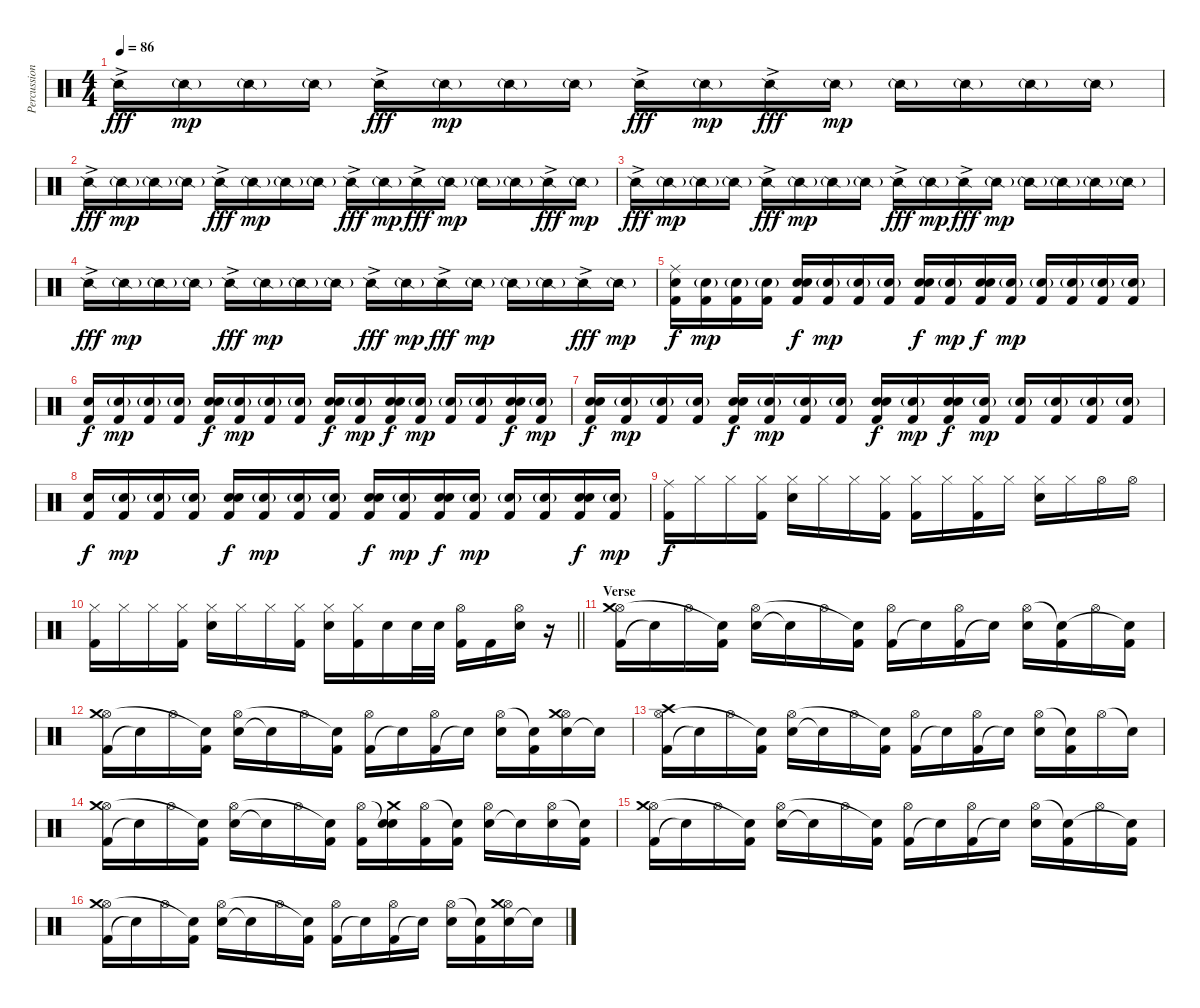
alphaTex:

\track ("Percussion" "Percussion") {instrument percussion}
\staff {score}
\articulation defaults
\ts (4 4)
\tempo 86
\clef neutral
\ks c "Snare (side stick) 2"{ac}.16{dy fff} "Snare (side stick) 2"{g}.16{dy mp} "Snare (side stick) 2"{g}.16 "Snare (side stick) 2"{g}.16 "Snare (side stick) 2"{ac}.16{dy fff} "Snare (side stick) 2"{g}.16{dy mp} "Snare (side stick) 2"{g}.16 "Snare (side stick) 2"{g}.16 "Snare (side stick) 2"{ac}.16{dy fff} "Snare (side stick) 2"{g}.16{dy mp} "Snare (side stick) 2"{ac}.16{dy fff} "Snare (side stick) 2"{g}.16{dy mp} "Snare (side stick) 2"{g}.16 "Snare (side stick) 2"{g}.16 "Snare (side stick) 2"{g}.16 "Snare (side stick) 2"{g}.16
|
"Snare (side stick) 2"{ac}.16{dy fff} "Snare (side stick) 2"{g}.16{dy mp} "Snare (side stick) 2"{g}.16 "Snare (side stick) 2"{g}.16 "Snare (side stick) 2"{ac}.16{dy fff} "Snare (side stick) 2"{g}.16{dy mp} "Snare (side stick) 2"{g}.16 "Snare (side stick) 2"{g}.16 "Snare (side stick) 2"{ac}.16{dy fff} "Snare (side stick) 2"{g}.16{dy mp} "Snare (side stick) 2"{ac}.16{dy fff} "Snare (side stick) 2"{g}.16{dy mp} "Snare (side stick) 2"{g}.16 "Snare (side stick) 2"{g}.16 "Snare (side stick) 2"{ac}.16{dy fff} "Snare (side stick) 2"{g}.16{dy mp} |
"Snare (side stick) 2"{ac}.16{dy fff} "Snare (side stick) 2"{g}.16{dy mp} "Snare (side stick) 2"{g}.16 "Snare (side stick) 2"{g}.16 "Snare (side stick) 2"{ac}.16{dy fff} "Snare (side stick) 2"{g}.16{dy mp} "Snare (side stick) 2"{g}.16 "Snare (side stick) 2"{g}.16 "Snare (side stick) 2"{ac}.16{dy fff} "Snare (side stick) 2"{g}.16{dy mp} "Snare (side stick) 2"{ac}.16{dy fff} "Snare (side stick) 2"{g}.16{dy mp} "Snare (side stick) 2"{g}.16 "Snare (side stick) 2"{g}.16 "Snare (side stick) 2"{g}.16 "Snare (side stick) 2"{g}.16 |
"Snare (side stick) 2"{ac}.16{dy fff} "Snare (side stick) 2"{g}.16{dy mp} "Snare (side stick) 2"{g}.16 "Snare (side stick) 2"{g}.16 "Snare (side stick) 2"{ac}.16{dy fff} "Snare (side stick) 2"{g}.16{dy mp} "Snare (side stick) 2"{g}.16 "Snare (side stick) 2"{g}.16 "Snare (side stick) 2"{ac}.16{dy fff} "Snare (side stick) 2"{g}.16{dy mp} "Snare (side stick) 2"{ac}.16{dy fff} "Snare (side stick) 2"{g}.16{dy mp} "Snare (side stick) 2"{g}.16 "Snare (side stick) 2"{g}.16 "Snare (side stick) 2"{ac}.16{dy fff} "Snare (side stick) 2"{g}.16{dy mp} |
("Kick (hit) 2" "Electric Snare (hit)" "Ride (middle)").16{dy f} ("Kick (hit) 2" "Electric Snare (hit)"{g}).16{dy mp} ("Kick (hit) 2" "Electric Snare (hit)"{g}).16 ("Kick (hit) 2" "Electric Snare (hit)"{g}).16 ("Kick (hit) 2" "Electric Snare (hit)" "Electric Snare (hit)").16{dy f} ("Kick (hit) 2" "Electric Snare (hit)"{g}).16{dy mp} ("Kick (hit) 2" "Electric Snare (hit)"{g}).16 ("Kick (hit) 2" "Electric Snare (hit)"{g}).16 ("Kick (hit) 2" "Electric Snare (hit)" "Electric Snare (hit)").16{dy f} ("Kick (hit) 2" "Electric Snare (hit)"{g}).16{dy mp} ("Kick (hit) 2" "Electric Snare (hit)" "Electric Snare (hit)").16{dy f} ("Kick (hit) 2" "Electric Snare (hit)"{g}).16{dy mp} ("Kick (hit) 2" "Electric Snare (hit)"{g}).16 ("Kick (hit) 2" "Electric Snare (hit)"{g}).16 ("Kick (hit) 2" "Electric Snare (hit)"{g}).16 ("Kick (hit) 2" "Electric Snare (hit)"{g}).16 |
("Kick (hit) 2" "Electric Snare (hit)").16{dy f} ("Kick (hit) 2" "Electric Snare (hit)"{g}).16{dy mp} ("Kick (hit) 2" "Electric Snare (hit)"{g}).16 ("Kick (hit) 2" "Electric Snare (hit)"{g}).16 ("Kick (hit) 2" "Electric Snare (hit)" "Electric Snare (hit)").16{dy f} ("Kick (hit) 2" "Electric Snare (hit)"{g}).16{dy mp} ("Kick (hit) 2" "Electric Snare (hit)"{g}).16 ("Kick (hit) 2" "Electric Snare (hit)"{g}).16 ("Kick (hit) 2" "Electric Snare (hit)" "Electric Snare (hit)").16{dy f} ("Kick (hit) 2" "Electric Snare (hit)"{g}).16{dy mp} ("Kick (hit) 2" "Electric Snare (hit)" "Electric Snare (hit)").16{dy f} ("Kick (hit) 2" "Electric Snare (hit)"{g}).16{dy mp} ("Kick (hit) 2" "Electric Snare (hit)"{g}).16 ("Kick (hit) 2" "Electric Snare (hit)"{g}).16 ("Kick (hit) 2" "Electric Snare (hit)" "Electric Snare (hit)").16{dy f} ("Kick (hit) 2" "Electric Snare (hit)"{g}).16{dy mp} |
("Kick (hit) 2" "Electric Snare (hit)" "Electric Snare (hit)").16{dy f} ("Kick (hit) 2" "Electric Snare (hit)"{g}).16{dy mp} ("Kick (hit) 2" "Electric Snare (hit)"{g}).16 ("Kick (hit) 2" "Electric Snare (hit)"{g}).16 ("Kick (hit) 2" "Electric Snare (hit)" "Electric Snare (hit)").16{dy f} ("Kick (hit) 2" "Electric Snare (hit)"{g}).16{dy mp} ("Kick (hit) 2" "Electric Snare (hit)"{g}).16 ("Kick (hit) 2" "Electric Snare (hit)"{g}).16 ("Kick (hit) 2" "Electric Snare (hit)" "Electric Snare (hit)").16{dy f} ("Kick (hit) 2" "Electric Snare (hit)"{g}).16{dy mp} ("Kick (hit) 2" "Electric Snare (hit)" "Electric Snare (hit)").16{dy f} ("Kick (hit) 2" "Electric Snare (hit)"{g}).16{dy mp} ("Kick (hit) 2" "Electric Snare (hit)"{g}).16 ("Kick (hit) 2" "Electric Snare (hit)"{g}).16 ("Kick (hit) 2" "Electric Snare (hit)"{g}).16 ("Kick (hit) 2" "Electric Snare (hit)"{g}).16 |
("Kick (hit) 2" "Electric Snare (hit)").16{dy f} ("Kick (hit) 2" "Electric Snare (hit)"{g}).16{dy mp} ("Kick (hit) 2" "Electric Snare (hit)"{g}).16 ("Kick (hit) 2" "Electric Snare (hit)"{g}).16 ("Kick (hit) 2" "Electric Snare (hit)" "Electric Snare (hit)").16{dy f} ("Kick (hit) 2" "Electric Snare (hit)"{g}).16{dy mp} ("Kick (hit) 2" "Electric Snare (hit)"{g}).16 ("Kick (hit) 2" "Electric Snare (hit)"{g}).16 ("Kick (hit) 2" "Electric Snare (hit)" "Electric Snare (hit)").16{dy f} ("Kick (hit) 2" "Electric Snare (hit)"{g}).16{dy mp} ("Kick (hit) 2" "Electric Snare (hit)" "Electric Snare (hit)").16{dy f} ("Kick (hit) 2" "Electric Snare (hit)"{g}).16{dy mp} ("Kick (hit) 2" "Electric Snare (hit)"{g}).16 ("Kick (hit) 2" "Electric Snare (hit)"{g}).16 ("Kick (hit) 2" "Electric Snare (hit)" "Electric Snare (hit)").16{dy f} ("Kick (hit) 2" "Electric Snare (hit)"{g}).16{dy mp} |
("Kick (hit) 2" "Ride (middle)").16{dy f} "Hi-Hat (closed)".16 "Hi-Hat (closed)".16 ("Kick (hit) 2" "Hi-Hat (closed)").16 ("Electric Snare (hit)" "Hi-Hat (closed)").16 "Hi-Hat (closed)".16 "Hi-Hat (closed)".16 ("Kick (hit) 2" "Hi-Hat (closed)").16 ("Kick (hit) 2" "Hi-Hat (closed)").16 "Hi-Hat (closed)".16 ("Kick (hit) 2" "Hi-Hat (closed)").16 "Hi-Hat (closed)".16 ("Electric Snare (hit)" "Hi-Hat (closed)").16 "Hi-Hat (closed)".16 "Hi-Hat (open)".16 "Hi-Hat (open)".16 |
\barLineRight lightlight
("Kick (hit) 2" "Hi-Hat (closed)").16 "Hi-Hat (closed)".16 "Hi-Hat (closed)".16 ("Kick (hit) 2" "Hi-Hat (closed)").16 ("Electric Snare (hit)" "Hi-Hat (closed)").16 "Hi-Hat (closed)".16 "Hi-Hat (closed)".16 ("Kick (hit) 2" "Hi-Hat (closed)").16 ("Electric Snare (hit)" "Hi-Hat (closed)").16 ("Kick (hit) 2" "Hi-Hat (closed)").16 "Electric Snare (hit)".16 "Electric Snare (hit)".32 "Electric Snare (hit)".32 ("Kick (hit) 2" "Hi-Hat (open)").16 "Kick (hit) 2".16 ("Electric Snare (hit)" "Hi-Hat (open)").16 r.16 |
\section ("" "Verse")
("Kick (hit) 2" "Hi-Hat (open)" "Crash medium (hit)").16 "Snare (hit)"{t}.16 "Hi-Hat (open)".16 ("Kick (hit) 2" "Snare (hit)"{t}).16 ("Electric Snare (hit)" "Hi-Hat (open)").16 "Snare (hit)"{t}.16 "Hi-Hat (open)".16 ("Kick (hit) 2" "Snare (hit)"{t}).16 ("Kick (hit) 2" "Hi-Hat (open)").16 "Snare (hit)"{t}.16 ("Kick (hit) 2" "Hi-Hat (open)").16 "Snare (hit)"{t}.16 ("Electric Snare (hit)" "Hi-Hat (open)").16 ("Kick (hit) 2" "Snare (hit)"{t}).16 "Hi-Hat (open)".16 ("Kick (hit) 2" "Snare (hit)"{t}).16 |
("Kick (hit) 2" "Hi-Hat (open)" "Crash medium (hit)").16 "Snare (hit)"{t}.16 "Hi-Hat (open)".16 ("Kick (hit) 2" "Snare (hit)"{t}).16 ("Electric Snare (hit)" "Hi-Hat (open)").16 "Snare (hit)"{t}.16 "Hi-Hat (open)".16 ("Kick (hit) 2" "Snare (hit)"{t}).16 ("Kick (hit) 2" "Hi-Hat (open)").16 "Snare (hit)"{t}.16 ("Kick (hit) 2" "Hi-Hat (open)").16 "Snare (hit)"{t}.16 ("Electric Snare (hit)" "Hi-Hat (open)").16 ("Kick (hit) 2" "Snare (hit)"{t}).16 ("Electric Snare (hit)" "Hi-Hat (open)" "Crash medium (hit)").16 "Snare (hit)"{t}.16 |
("Kick (hit) 2" "Hi-Hat (open)" "Crash high (hit)").16 "Snare (hit)"{t}.16 "Hi-Hat (open)".16 ("Kick (hit) 2" "Snare (hit)"{t}).16 ("Electric Snare (hit)" "Hi-Hat (open)").16 "Snare (hit)"{t}.16 "Hi-Hat (open)".16 ("Kick (hit) 2" "Snare (hit)"{t}).16 ("Kick (hit) 2" "Hi-Hat (open)").16 "Snare (hit)"{t}.16 ("Kick (hit) 2" "Hi-Hat (open)").16 "Snare (hit)"{t}.16 ("Electric Snare (hit)" "Hi-Hat (open)").16 ("Kick (hit) 2" "Snare (hit)"{t}).16 "Hi-Hat (open)".16 "Snare (hit)"{t}.16 |
("Kick (hit) 2" "Hi-Hat (open)" "Crash medium (hit)").16 "Snare (hit)"{t}.16 "Hi-Hat (open)".16 ("Kick (hit) 2" "Snare (hit)"{t}).16 ("Electric Snare (hit)" "Hi-Hat (open)").16 "Snare (hit)"{t}.16 "Hi-Hat (open)".16 ("Kick (hit) 2" "Snare (hit)"{t}).16 ("Kick (hit) 2" "Hi-Hat (open)").16 ("Electric Snare (hit)" "Snare (hit)"{t} "Crash medium (hit)").16 ("Kick (hit) 2" "Hi-Hat (open)").16 ("Kick (hit) 2" "Snare (hit)"{t}).16 ("Electric Snare (hit)" "Hi-Hat (open)").16 "Snare (hit)"{t}.16 ("Electric Snare (hit)" "Hi-Hat (open)").16 ("Kick (hit) 2" "Snare (hit)"{t}).16 |
("Kick (hit) 2" "Hi-Hat (open)" "Crash medium (hit)").16 "Snare (hit)"{t}.16 "Hi-Hat (open)".16 ("Kick (hit) 2" "Snare (hit)"{t}).16 ("Electric Snare (hit)" "Hi-Hat (open)").16 "Snare (hit)"{t}.16 "Hi-Hat (open)".16 ("Kick (hit) 2" "Snare (hit)"{t}).16 ("Kick (hit) 2" "Hi-Hat (open)").16 "Snare (hit)"{t}.16 ("Kick (hit) 2" "Hi-Hat (open)").16 "Snare (hit)"{t}.16 ("Electric Snare (hit)" "Hi-Hat (open)").16 ("Kick (hit) 2" "Snare (hit)"{t}).16 "Hi-Hat (open)".16 ("Kick (hit) 2" "Snare (hit)"{t}).16 |
("Kick (hit) 2" "Hi-Hat (open)" "Crash medium (hit)").16 "Snare (hit)"{t}.16 "Hi-Hat (open)".16 ("Kick (hit) 2" "Snare (hit)"{t}).16 ("Electric Snare (hit)" "Hi-Hat (open)").16 "Snare (hit)"{t}.16 "Hi-Hat (open)".16 ("Kick (hit) 2" "Snare (hit)"{t}).16 ("Kick (hit) 2" "Hi-Hat (open)").16 "Snare (hit)"{t}.16 ("Kick (hit) 2" "Hi-Hat (open)").16 "Snare (hit)"{t}.16 ("Electric Snare (hit)" "Hi-Hat (open)").16 ("Kick (hit) 2" "Snare (hit)"{t}).16 ("Electric Snare (hit)" "Hi-Hat (open)" "Crash medium (hit)").16 "Snare (hit)"{t}.16
